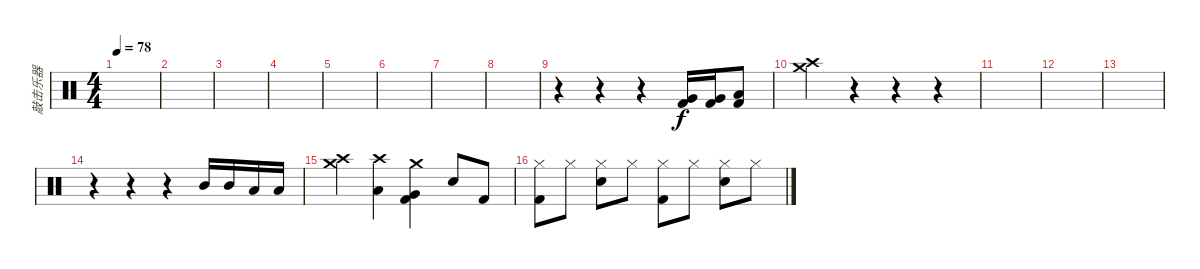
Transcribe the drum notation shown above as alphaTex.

\track ("敲击乐器" "敲击乐器") {instrument percussion}
\staff {score}
\articulation defaults
\ts (4 4)
\tempo 78
\clef neutral
\ks c
|
|
|
|
|
|
|
|
r.4 r.4 r.4 ("Very Low Tom (hit)" "Kick (hit) 2").16 ("Very Low Tom (hit)" "Kick (hit) 2").16 ("Low Floor Tom (hit)" "Kick (hit) 2").8 |
("Crash high (hit)" "Crash medium (hit)").4 r.4 r.4 r.4 |
|
|
|
r.4 r.4 r.4 "Mid Tom (hit)".16 "Mid Tom (hit)".16 "Low Tom (hit)".16 "Low Tom (hit)".16 |
("Crash medium (hit)" "Crash high (hit)").4 ("Low Tom (hit)" "Crash high (hit)").4 ("Very Low Tom (hit)" "Kick (hit) 2" "Crash medium (hit)").4 "Snare (hit) 2".8 "Kick (hit) 2".8 |
("Hi-Hat (closed)" "Kick (hit) 2").8 "Hi-Hat (closed)".8 ("Hi-Hat (closed)" "Snare (hit) 2").8 "Hi-Hat (closed)".8 ("Hi-Hat (closed)" "Kick (hit) 2").8 "Hi-Hat (closed)".8 ("Hi-Hat (closed)" "Snare (hit) 2").8 "Hi-Hat (closed)".8
